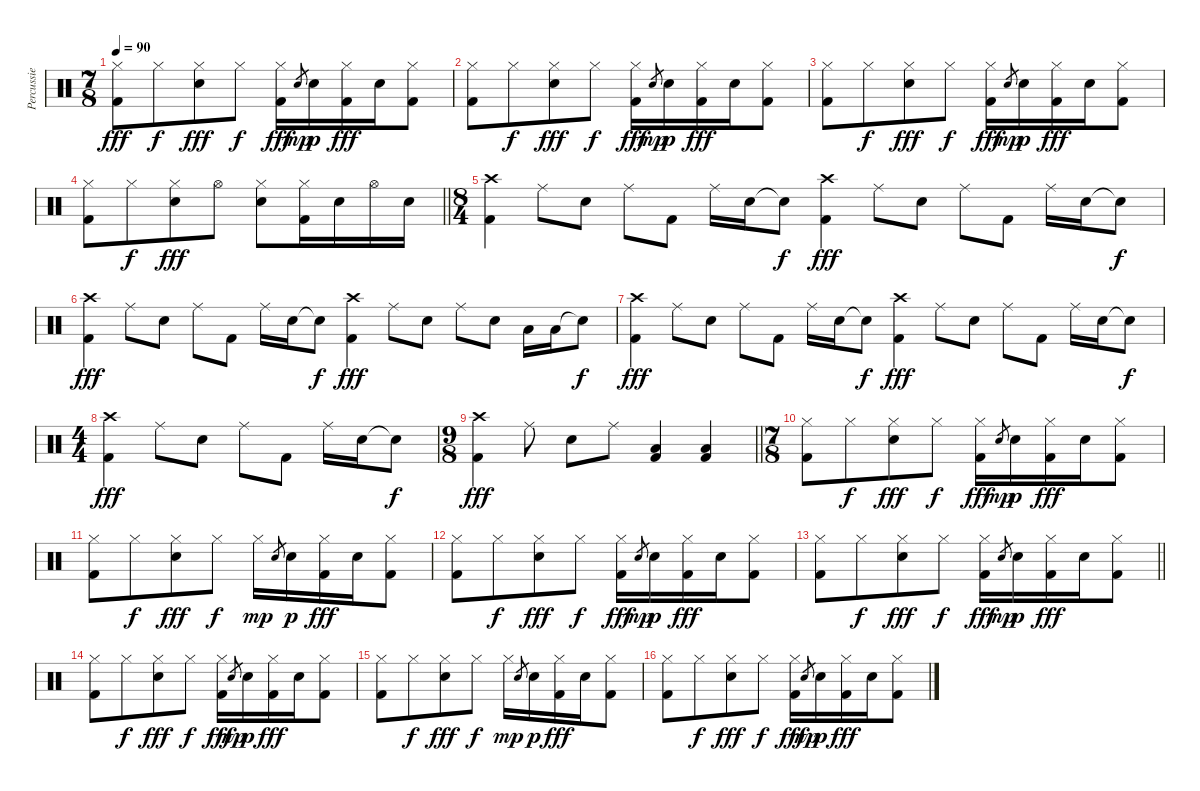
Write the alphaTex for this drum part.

\track ("Percussie" "Percussie") {instrument percussion}
\staff {score}
\articulation defaults
\ts (7 8)
\tempo 90
\clef neutral
\ks c
("Hi-Hat (closed)" "Kick (hit) 2").8{dy fff} "Hi-Hat (closed)".8{dy f} ("Hi-Hat (closed)" "Snare (hit) 2").8{dy fff} "Hi-Hat (closed)".8{dy f} ("Hi-Hat (closed)" "Kick (hit) 2").16{dy fff} "Snare (hit) 2".8{gr dy mp} "Snare (hit) 2".16{dy p} ("Hi-Hat (closed)" "Kick (hit) 2").16{dy fff} "Snare (hit) 2".16 ("Hi-Hat (closed)" "Kick (hit) 2").8 |
("Hi-Hat (closed)" "Kick (hit) 2").8 "Hi-Hat (closed)".8{dy f} ("Hi-Hat (closed)" "Snare (hit) 2").8{dy fff} "Hi-Hat (closed)".8{dy f} ("Hi-Hat (closed)" "Kick (hit) 2").16{dy fff} "Snare (hit) 2".8{gr dy mp} "Snare (hit) 2".16{dy p} ("Hi-Hat (closed)" "Kick (hit) 2").16{dy fff} "Snare (hit) 2".16 ("Hi-Hat (closed)" "Kick (hit) 2").8 |
("Hi-Hat (closed)" "Kick (hit) 2").8 "Hi-Hat (closed)".8{dy f} ("Hi-Hat (closed)" "Snare (hit) 2").8{dy fff} "Hi-Hat (closed)".8{dy f} ("Hi-Hat (closed)" "Kick (hit) 2").16{dy fff} "Snare (hit) 2".8{gr dy mp} "Snare (hit) 2".16{dy p} ("Hi-Hat (closed)" "Kick (hit) 2").16{dy fff} "Snare (hit) 2".16 ("Hi-Hat (closed)" "Kick (hit) 2").8 |
\barLineRight lightlight
("Hi-Hat (closed)" "Kick (hit) 2").8 "Hi-Hat (closed)".8{dy f} ("Hi-Hat (closed)" "Snare (hit) 2").8{dy fff} "Hi-Hat (open)".8 ("Hi-Hat (closed)" "Snare (hit) 2").8 ("Hi-Hat (closed)" "Kick (hit) 2").16 "Snare (hit) 2".16 "Hi-Hat (open)".16 "Snare (hit) 2".16 |
\ts (8 4)
("Crash high (hit)" "Kick (hit) 2").4 "Ride (middle)".8 "Snare (hit) 2".8 "Ride (middle)".8 "Kick (hit) 2".8 "Ride (middle)".16 "Snare (hit) 2".16 "Snare (hit)"{t}.8{dy f} ("Crash high (hit)" "Kick (hit) 2").4{dy fff} "Ride (middle)".8 "Snare (hit) 2".8 "Ride (middle)".8 "Kick (hit) 2".8 "Ride (middle)".16 "Snare (hit) 2".16 "Snare (hit)"{t}.8{dy f} |
("Crash high (hit)" "Kick (hit) 2").4{dy fff} "Ride (middle)".8 "Snare (hit) 2".8 "Ride (middle)".8 "Kick (hit) 2".8 "Ride (middle)".16 "Snare (hit) 2".16 "Snare (hit)"{t}.8{dy f} ("Crash high (hit)" "Kick (hit) 2").4{dy fff} "Ride (middle)".8 "Snare (hit) 2".8 "Ride (middle)".8 "Snare (hit) 2".8 "Low Floor Tom (hit)".16 "Low Floor Tom (hit)".16 "Snare (hit)"{t}.8{dy f} |
("Crash high (hit)" "Kick (hit) 2").4{dy fff} "Ride (middle)".8 "Snare (hit) 2".8 "Ride (middle)".8 "Kick (hit) 2".8 "Ride (middle)".16 "Snare (hit) 2".16 "Snare (hit)"{t}.8{dy f} ("Crash high (hit)" "Kick (hit) 2").4{dy fff} "Ride (middle)".8 "Snare (hit) 2".8 "Ride (middle)".8 "Kick (hit) 2".8 "Ride (middle)".16 "Snare (hit) 2".16 "Snare (hit)"{t}.8{dy f} |
\ts (4 4)
("Crash high (hit)" "Kick (hit) 2").4{dy fff} "Ride (middle)".8 "Snare (hit) 2".8 "Ride (middle)".8 "Kick (hit) 2".8 "Ride (middle)".16 "Snare (hit) 2".16 "Snare (hit)"{t}.8{dy f} |
\ts (9 8)
\barLineRight lightlight
("Crash high (hit)" "Kick (hit) 2").4{dy fff} "Ride (middle)".8 "Snare (hit) 2".8 "Ride (middle)".8 ("Low Floor Tom (hit)" "Kick (hit) 2").4 ("Low Floor Tom (hit)" "Kick (hit) 2").4 |
\ts (7 8)
("Hi-Hat (closed)" "Kick (hit) 2").8 "Hi-Hat (closed)".8{dy f} ("Hi-Hat (closed)" "Snare (hit) 2").8{dy fff} "Hi-Hat (closed)".8{dy f} ("Hi-Hat (closed)" "Kick (hit) 2").16{dy fff} "Snare (hit) 2".8{gr dy mp} "Snare (hit) 2".16{dy p} ("Hi-Hat (closed)" "Kick (hit) 2").16{dy fff} "Snare (hit) 2".16 ("Hi-Hat (closed)" "Kick (hit) 2").8 |
("Hi-Hat (closed)" "Kick (hit) 2").8 "Hi-Hat (closed)".8{dy f} ("Hi-Hat (closed)" "Snare (hit) 2").8{dy fff} "Hi-Hat (closed)".8{dy f} "Hi-Hat (closed)".16{dy mp} "Snare (hit) 2".8{gr} "Snare (hit) 2".16{dy p} ("Hi-Hat (closed)" "Kick (hit) 2").16{dy fff} "Snare (hit) 2".16 ("Hi-Hat (closed)" "Kick (hit) 2").8 |
("Hi-Hat (closed)" "Kick (hit) 2").8 "Hi-Hat (closed)".8{dy f} ("Hi-Hat (closed)" "Snare (hit) 2").8{dy fff} "Hi-Hat (closed)".8{dy f} ("Hi-Hat (closed)" "Kick (hit) 2").16{dy fff} "Snare (hit) 2".8{gr dy mp} "Snare (hit) 2".16{dy p} ("Hi-Hat (closed)" "Kick (hit) 2").16{dy fff} "Snare (hit) 2".16 ("Hi-Hat (closed)" "Kick (hit) 2").8 |
\barLineRight lightlight
("Hi-Hat (closed)" "Kick (hit) 2").8 "Hi-Hat (closed)".8{dy f} ("Hi-Hat (closed)" "Snare (hit) 2").8{dy fff} "Hi-Hat (closed)".8{dy f} ("Hi-Hat (closed)" "Kick (hit) 2").16{dy fff} "Snare (hit) 2".8{gr dy mp} "Snare (hit) 2".16{dy p} ("Hi-Hat (closed)" "Kick (hit) 2").16{dy fff} "Snare (hit) 2".16 ("Hi-Hat (closed)" "Kick (hit) 2").8 |
("Hi-Hat (closed)" "Kick (hit) 2").8 "Hi-Hat (closed)".8{dy f} ("Hi-Hat (closed)" "Snare (hit) 2").8{dy fff} "Hi-Hat (closed)".8{dy f} ("Hi-Hat (closed)" "Kick (hit) 2").16{dy fff} "Snare (hit) 2".8{gr dy mp} "Snare (hit) 2".16{dy p} ("Hi-Hat (closed)" "Kick (hit) 2").16{dy fff} "Snare (hit) 2".16 ("Hi-Hat (closed)" "Kick (hit) 2").8 |
("Hi-Hat (closed)" "Kick (hit) 2").8 "Hi-Hat (closed)".8{dy f} ("Hi-Hat (closed)" "Snare (hit) 2").8{dy fff} "Hi-Hat (closed)".8{dy f} "Hi-Hat (closed)".16{dy mp} "Snare (hit) 2".8{gr} "Snare (hit) 2".16{dy p} ("Hi-Hat (closed)" "Kick (hit) 2").16{dy fff} "Snare (hit) 2".16 ("Hi-Hat (closed)" "Kick (hit) 2").8 |
("Hi-Hat (closed)" "Kick (hit) 2").8 "Hi-Hat (closed)".8{dy f} ("Hi-Hat (closed)" "Snare (hit) 2").8{dy fff} "Hi-Hat (closed)".8{dy f} ("Hi-Hat (closed)" "Kick (hit) 2").16{dy fff} "Snare (hit) 2".8{gr dy mp} "Snare (hit) 2".16{dy p} ("Hi-Hat (closed)" "Kick (hit) 2").16{dy fff} "Snare (hit) 2".16 ("Hi-Hat (closed)" "Kick (hit) 2").8
